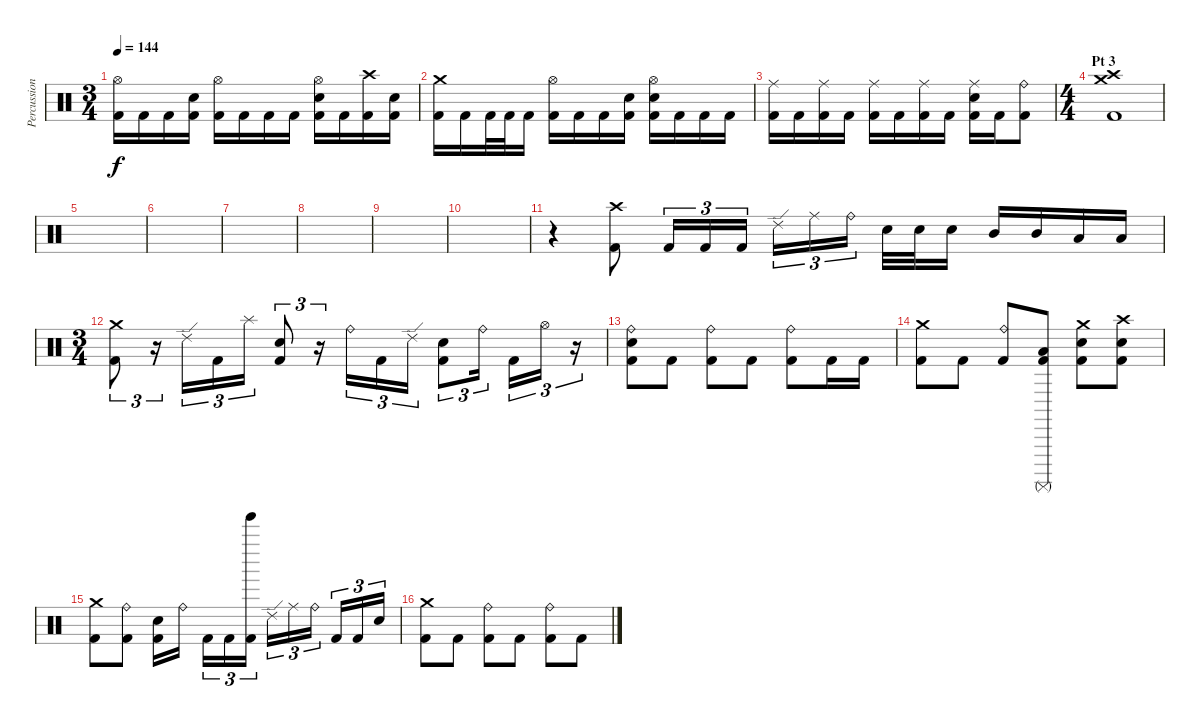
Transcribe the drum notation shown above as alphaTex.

\track ("Percussion" "Percussion") {instrument percussion}
\staff {score}
\articulation defaults
\ts (3 4)
\tempo 144
\clef neutral
\ks c
("Hi-Hat (open)" "Kick (hit) 2").16{dy f} "Kick (hit) 2".16 "Kick (hit) 2".16 ("Electric Snare (hit)" "Kick (hit) 2").16 ("Hi-Hat (open)" "Kick (hit) 2").16 "Kick (hit) 2".16 "Kick (hit) 2".16 "Kick (hit) 2".16 ("Hi-Hat (open)" "Electric Snare (hit)" "Kick (hit) 2").16 "Kick (hit) 2".16 ("Crash high (hit)" "Kick (hit) 2").16 ("Electric Snare (hit)" "Kick (hit) 2").16 |
("Crash medium (hit)" "Kick (hit) 2").16 "Kick (hit) 2".16 "Kick (hit) 2".32 "Kick (hit) 2".32 "Kick (hit) 2".16 ("Hi-Hat (open)" "Kick (hit) 2").16 "Kick (hit) 2".16 "Kick (hit) 2".16 ("Electric Snare (hit)" "Kick (hit) 2").16 ("Hi-Hat (open)" "Electric Snare (hit)" "Kick (hit) 2").16 "Kick (hit) 2".16 "Kick (hit) 2".16 "Kick (hit) 2".16 |
("Ride (middle)" "Kick (hit) 2").16 "Kick (hit) 2".16 ("Ride (middle)" "Kick (hit) 2").16 "Kick (hit) 2".16 ("Ride (middle)" "Kick (hit) 2").16 "Kick (hit) 2".16 ("Ride (middle)" "Kick (hit) 2").16 "Kick (hit) 2".16 ("Ride (middle)" "Electric Snare (hit)" "Kick (hit) 2").16 "Kick (hit) 2".16 ("Ride (bell)" "Kick (hit) 2").8 |
\ts (4 4)
\section ("" "Pt 3")
("Crash high (hit)" "Crash medium (hit)" "Kick (hit) 2").1 |
|
|
|
|
|
|
r.4 ("Crash high (hit)" "Kick (hit) 2").8 "Kick (hit) 2".16{tu (3 2)} "Kick (hit) 2".16{tu (3 2)} "Kick (hit) 2".16{tu (3 2)} "Ride (edge) 2".16{tu (3 2)} "Ride (middle)".16{tu (3 2)} "Ride (bell)".16{tu (3 2)} "Electric Snare (hit)".32 "Electric Snare (hit)".32 "Electric Snare (hit)".16 "Mid Tom (hit)".16 "Mid Tom (hit)".16 "Low Tom (hit)".16 "Low Tom (hit)".16 |
\ts (3 4)
("Crash medium (hit)" "Kick (hit) 2").8{tu (3 2)} r.16{tu (3 2)} "Ride (edge) 2".16{tu (3 2)} "Kick (hit) 2".16{tu (3 2)} "Splash (hit)".16{tu (3 2)} ("Electric Snare (hit)" "Kick (hit) 2").8{tu (3 2)} r.16{tu (3 2)} "Ride (bell)".16{tu (3 2)} "Kick (hit) 2".16{tu (3 2)} "Ride (edge) 2".16{tu (3 2)} ("Electric Snare (hit)" "Kick (hit) 2").8{tu (3 2)} "Ride (bell)".16{tu (3 2)} "Kick (hit) 2".16{tu (3 2)} "Hi-Hat (open)".16{tu (3 2)} r.16{tu (3 2)} |
("Ride (bell)" "Electric Snare (hit)" "Kick (hit) 2").8 "Kick (hit) 2".8 ("Ride (bell)" "Kick (hit) 2").8 "Kick (hit) 2".8 ("Ride (bell)" "Kick (hit) 2").8 "Kick (hit) 2".16 "Kick (hit) 2".16 |
("Crash medium (hit)" "Kick (hit) 2").8 "Kick (hit) 2".8 ("Ride (bell)" "Kick (hit) 2").8 ("Surdo (mute)" "Low Tom (hit)" "Kick (hit) 2").8 ("Crash medium (hit)" "Electric Snare (hit)" "Kick (hit) 2").8 ("Crash high (hit)" "Electric Snare (hit)" "Kick (hit) 2").8 |
("Crash medium (hit)" "Kick (hit) 2").8 ("Ride (bell)" "Kick (hit) 2").8 ("Electric Snare (hit)" "Kick (hit) 2").16 "Ride (bell)".16 "Kick (hit) 2".16{tu (3 2)} "Kick (hit) 2".16{tu (3 2)} ("Tinkle Bell (hit)" "Kick (hit) 2").16{tu (3 2)} "Ride (edge) 2".16{tu (3 2)} "Ride (middle)".16{tu (3 2)} "Ride (bell)".16{tu (3 2)} "Kick (hit) 2".16{tu (3 2)} "Kick (hit) 2".16{tu (3 2)} "Electric Snare (hit)".16{tu (3 2)} |
("Crash medium (hit)" "Kick (hit) 2").8 "Kick (hit) 2".8 ("Ride (bell)" "Kick (hit) 2").8 "Kick (hit) 2".8 ("Ride (bell)" "Kick (hit) 2").8 "Kick (hit) 2".8
